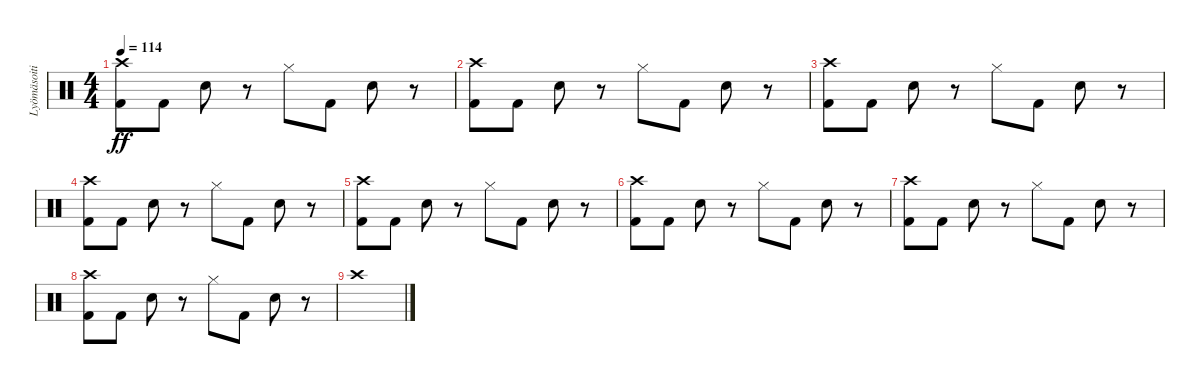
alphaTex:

\track ("Lyömäsoitin" "Lyömäsoiti") {instrument percussion}
\staff {score}
\articulation defaults
\ts (4 4)
\tempo 114
\clef neutral
\ks c
("Crash high (hit)" "Kick (hit) 2").8{dy ff} "Kick (hit) 2".8 "Electric Snare (hit)".8 r.8 "Hi-Hat (closed)".8 "Kick (hit) 2".8 "Electric Snare (hit)".8 r.8 |
("Crash high (hit)" "Kick (hit) 2").8 "Kick (hit) 2".8 "Electric Snare (hit)".8 r.8 "Hi-Hat (closed)".8 "Kick (hit) 2".8 "Electric Snare (hit)".8 r.8 |
("Crash high (hit)" "Kick (hit) 2").8 "Kick (hit) 2".8 "Electric Snare (hit)".8 r.8 "Hi-Hat (closed)".8 "Kick (hit) 2".8 "Electric Snare (hit)".8 r.8 |
("Crash high (hit)" "Kick (hit) 2").8 "Kick (hit) 2".8 "Electric Snare (hit)".8 r.8 "Hi-Hat (closed)".8 "Kick (hit) 2".8 "Electric Snare (hit)".8 r.8 |
("Crash high (hit)" "Kick (hit) 2").8 "Kick (hit) 2".8 "Electric Snare (hit)".8 r.8 "Hi-Hat (closed)".8 "Kick (hit) 2".8 "Electric Snare (hit)".8 r.8 |
("Crash high (hit)" "Kick (hit) 2").8 "Kick (hit) 2".8 "Electric Snare (hit)".8 r.8 "Hi-Hat (closed)".8 "Kick (hit) 2".8 "Electric Snare (hit)".8 r.8 |
("Crash high (hit)" "Kick (hit) 2").8 "Kick (hit) 2".8 "Electric Snare (hit)".8 r.8 "Hi-Hat (closed)".8 "Kick (hit) 2".8 "Electric Snare (hit)".8 r.8 |
("Crash high (hit)" "Kick (hit) 2").8 "Kick (hit) 2".8 "Electric Snare (hit)".8 r.8 "Hi-Hat (closed)".8 "Kick (hit) 2".8 "Electric Snare (hit)".8 r.8 |
"Crash high (hit)".1
